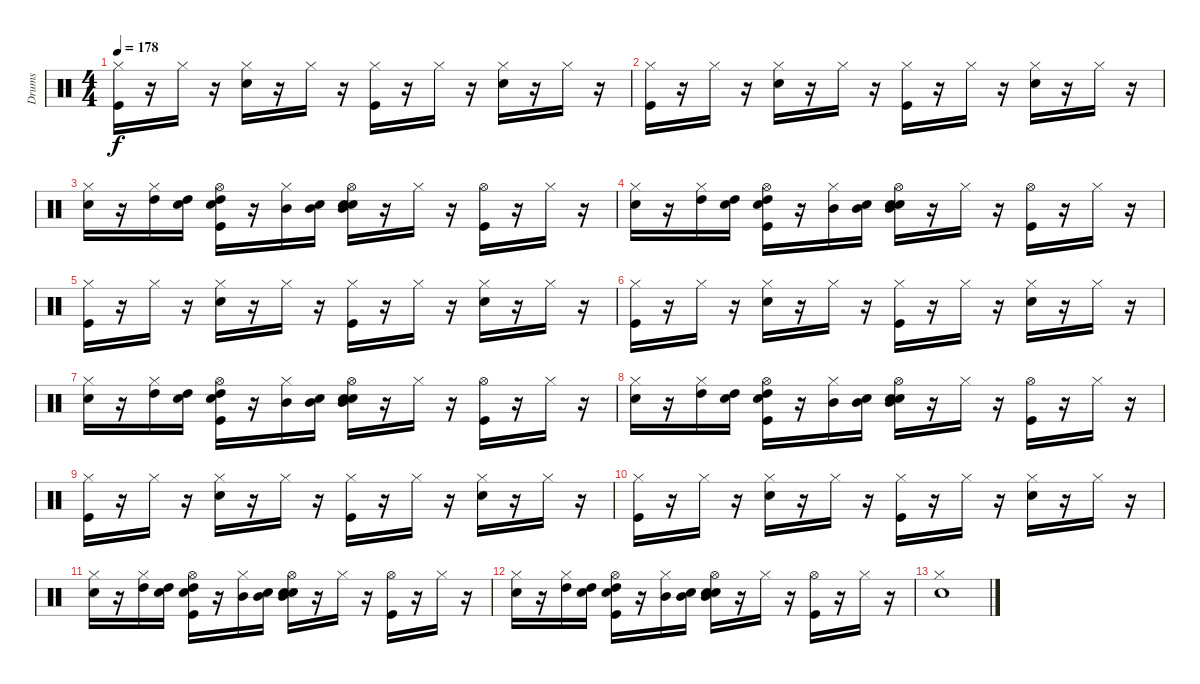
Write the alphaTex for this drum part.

\track ("Drums               " "Drums     ") {instrument percussion}
\staff {score}
\articulation defaults
\ts (4 4)
\tempo 178
\clef neutral
\ks c
("Kick (hit)" "Hi-Hat (closed)").16{dy f} r.16 "Hi-Hat (closed)".16 r.16 ("Snare (hit) 2" "Hi-Hat (closed)").16 r.16 "Hi-Hat (closed)".16 r.16 ("Kick (hit)" "Hi-Hat (closed)").16 r.16 "Hi-Hat (closed)".16 r.16 ("Snare (hit) 2" "Hi-Hat (closed)").16 r.16 "Hi-Hat (closed)".16 r.16 |
("Kick (hit)" "Hi-Hat (closed)").16 r.16 "Hi-Hat (closed)".16 r.16 ("Snare (hit) 2" "Hi-Hat (closed)").16 r.16 "Hi-Hat (closed)".16 r.16 ("Kick (hit)" "Hi-Hat (closed)").16 r.16 "Hi-Hat (closed)".16 r.16 ("Snare (hit) 2" "Hi-Hat (closed)").16 r.16 "Hi-Hat (closed)".16 r.16 |
("Snare (hit) 2" "Hi-Hat (closed)").16 r.16 ("Hi-Hat (closed)" "High Tom (hit)").16 ("Snare (hit)" "High Tom (hit)").16 ("Snare (hit)" "Kick (hit)" "High Tom (hit)" "Hi-Hat (open)").16 r.16 ("Hi-Hat (closed)" "Mid Tom (hit)").16 ("Snare (hit)" "Mid Tom (hit)").16 ("Snare (hit)" "Snare (hit) 2" "Mid Tom (hit)" "Hi-Hat (open)").16 r.16 "Hi-Hat (closed)".16 r.16 ("Kick (hit)" "Hi-Hat (open)").16 r.16 "Hi-Hat (closed)".16 r.16 |
("Snare (hit) 2" "Hi-Hat (closed)").16 r.16 ("Hi-Hat (closed)" "High Tom (hit)").16 ("Snare (hit)" "High Tom (hit)").16 ("Snare (hit)" "Kick (hit)" "High Tom (hit)" "Hi-Hat (open)").16 r.16 ("Hi-Hat (closed)" "Mid Tom (hit)").16 ("Snare (hit)" "Mid Tom (hit)").16 ("Snare (hit)" "Snare (hit) 2" "Mid Tom (hit)" "Hi-Hat (open)").16 r.16 "Hi-Hat (closed)".16 r.16 ("Kick (hit)" "Hi-Hat (open)").16 r.16 "Hi-Hat (closed)".16 r.16 |
("Kick (hit)" "Hi-Hat (closed)").16 r.16 "Hi-Hat (closed)".16 r.16 ("Snare (hit) 2" "Hi-Hat (closed)").16 r.16 "Hi-Hat (closed)".16 r.16 ("Kick (hit)" "Hi-Hat (closed)").16 r.16 "Hi-Hat (closed)".16 r.16 ("Snare (hit) 2" "Hi-Hat (closed)").16 r.16 "Hi-Hat (closed)".16 r.16 |
("Kick (hit)" "Hi-Hat (closed)").16 r.16 "Hi-Hat (closed)".16 r.16 ("Snare (hit) 2" "Hi-Hat (closed)").16 r.16 "Hi-Hat (closed)".16 r.16 ("Kick (hit)" "Hi-Hat (closed)").16 r.16 "Hi-Hat (closed)".16 r.16 ("Snare (hit) 2" "Hi-Hat (closed)").16 r.16 "Hi-Hat (closed)".16 r.16 |
("Snare (hit) 2" "Hi-Hat (closed)").16 r.16 ("Hi-Hat (closed)" "High Tom (hit)").16 ("Snare (hit)" "High Tom (hit)").16 ("Snare (hit)" "Kick (hit)" "High Tom (hit)" "Hi-Hat (open)").16 r.16 ("Hi-Hat (closed)" "Mid Tom (hit)").16 ("Snare (hit)" "Mid Tom (hit)").16 ("Snare (hit)" "Snare (hit) 2" "Mid Tom (hit)" "Hi-Hat (open)").16 r.16 "Hi-Hat (closed)".16 r.16 ("Kick (hit)" "Hi-Hat (open)").16 r.16 "Hi-Hat (closed)".16 r.16 |
("Snare (hit) 2" "Hi-Hat (closed)").16 r.16 ("Hi-Hat (closed)" "High Tom (hit)").16 ("Snare (hit)" "High Tom (hit)").16 ("Snare (hit)" "Kick (hit)" "High Tom (hit)" "Hi-Hat (open)").16 r.16 ("Hi-Hat (closed)" "Mid Tom (hit)").16 ("Snare (hit)" "Mid Tom (hit)").16 ("Snare (hit)" "Snare (hit) 2" "Mid Tom (hit)" "Hi-Hat (open)").16 r.16 "Hi-Hat (closed)".16 r.16 ("Kick (hit)" "Hi-Hat (open)").16 r.16 "Hi-Hat (closed)".16 r.16 |
("Kick (hit)" "Hi-Hat (closed)").16 r.16 "Hi-Hat (closed)".16 r.16 ("Snare (hit) 2" "Hi-Hat (closed)").16 r.16 "Hi-Hat (closed)".16 r.16 ("Kick (hit)" "Hi-Hat (closed)").16 r.16 "Hi-Hat (closed)".16 r.16 ("Snare (hit) 2" "Hi-Hat (closed)").16 r.16 "Hi-Hat (closed)".16 r.16 |
("Kick (hit)" "Hi-Hat (closed)").16 r.16 "Hi-Hat (closed)".16 r.16 ("Snare (hit) 2" "Hi-Hat (closed)").16 r.16 "Hi-Hat (closed)".16 r.16 ("Kick (hit)" "Hi-Hat (closed)").16 r.16 "Hi-Hat (closed)".16 r.16 ("Snare (hit) 2" "Hi-Hat (closed)").16 r.16 "Hi-Hat (closed)".16 r.16 |
("Snare (hit) 2" "Hi-Hat (closed)").16 r.16 ("Hi-Hat (closed)" "High Tom (hit)").16 ("Snare (hit)" "High Tom (hit)").16 ("Snare (hit)" "Kick (hit)" "High Tom (hit)" "Hi-Hat (open)").16 r.16 ("Hi-Hat (closed)" "Mid Tom (hit)").16 ("Snare (hit)" "Mid Tom (hit)").16 ("Snare (hit)" "Snare (hit) 2" "Mid Tom (hit)" "Hi-Hat (open)").16 r.16 "Hi-Hat (closed)".16 r.16 ("Kick (hit)" "Hi-Hat (open)").16 r.16 "Hi-Hat (closed)".16 r.16 |
("Snare (hit) 2" "Hi-Hat (closed)").16 r.16 ("Hi-Hat (closed)" "High Tom (hit)").16 ("Snare (hit)" "High Tom (hit)").16 ("Snare (hit)" "Kick (hit)" "High Tom (hit)" "Hi-Hat (open)").16 r.16 ("Hi-Hat (closed)" "Mid Tom (hit)").16 ("Snare (hit)" "Mid Tom (hit)").16 ("Snare (hit)" "Snare (hit) 2" "Mid Tom (hit)" "Hi-Hat (open)").16 r.16 "Hi-Hat (closed)".16 r.16 ("Kick (hit)" "Hi-Hat (open)").16 r.16 "Hi-Hat (closed)".16 r.16 |
("Snare (hit) 2" "Hi-Hat (closed)").1
